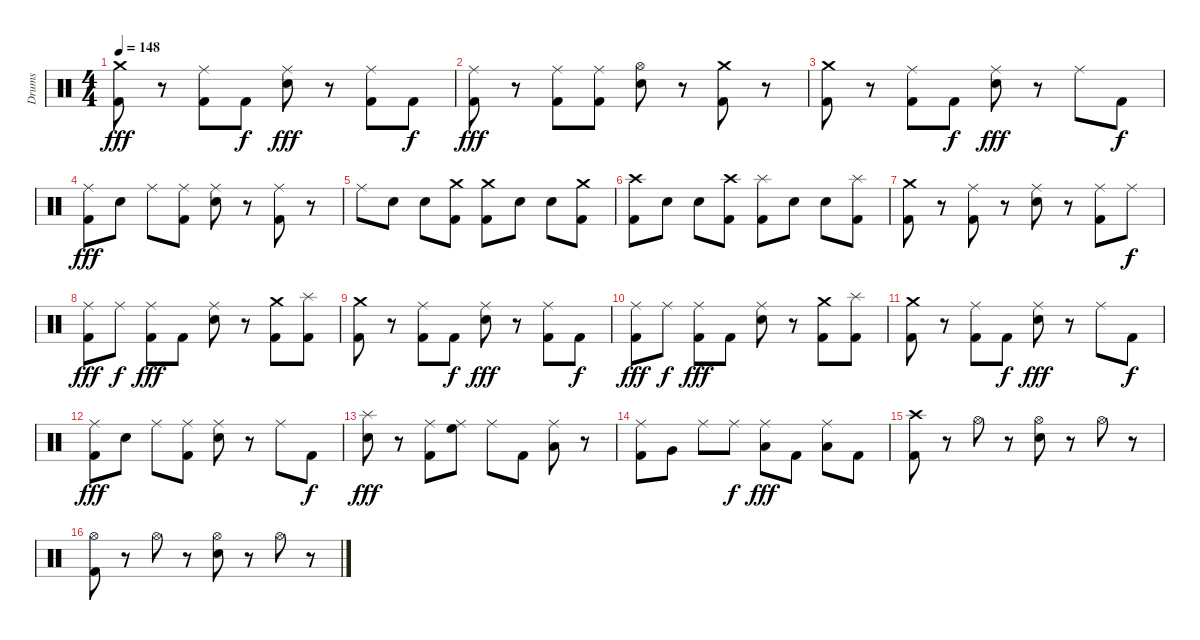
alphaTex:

\track ("Drums" "Drums") {instrument percussion}
\staff {score}
\articulation defaults
\ts (4 4)
\tempo 148
\clef neutral
\ks c
("Crash medium (hit)" "Kick (hit) 2").8{dy fff} r.8 ("Ride (middle)" "Kick (hit) 2").8 "Kick (hit) 2".8{dy f} ("Ride (middle)" "Electric Snare (hit)").8{dy fff} r.8 ("Ride (middle)" "Kick (hit) 2").8 "Kick (hit) 2".8{dy f} |
("Ride (middle)" "Kick (hit) 2").8{dy fff} r.8 ("Ride (middle)" "Kick (hit) 2").8 ("Ride (middle)" "Kick (hit) 2").8 ("Hi-Hat (open)" "Electric Snare (hit)").8 r.8 ("Crash medium (hit)" "Kick (hit) 2").8 r.8 |
("Crash medium (hit)" "Kick (hit) 2").8 r.8 ("Ride (middle)" "Kick (hit) 2").8 "Kick (hit) 2".8{dy f} ("Ride (middle)" "Electric Snare (hit)").8{dy fff} r.8 "Ride (middle)".8 "Kick (hit) 2".8{dy f} |
("Ride (middle)" "Kick (hit) 2").8{dy fff} "Electric Snare (hit)".8 "Ride (middle)".8 ("Ride (middle)" "Kick (hit) 2").8 ("Ride (middle)" "Electric Snare (hit)").8 r.8 ("Ride (middle)" "Kick (hit) 2").8 r.8 |
"Ride (middle)".8 "Electric Snare (hit)".8 "Electric Snare (hit)".8 ("Crash medium (hit)" "Kick (hit) 2").8 ("Crash medium (hit)" "Kick (hit) 2").8 "Electric Snare (hit)".8 "Electric Snare (hit)".8 ("Crash medium (hit)" "Kick (hit) 2").8 |
("Crash high (hit)" "Kick (hit) 2").8 "Electric Snare (hit)".8 "Electric Snare (hit)".8 ("Crash high (hit)" "Kick (hit) 2").8 ("Splash (hit)" "Kick (hit) 2").8 "Electric Snare (hit)".8 "Electric Snare (hit)".8 ("Splash (hit)" "Kick (hit) 2").8 |
("Crash medium (hit)" "Kick (hit) 2").8{volume 11} r.8 ("Ride (middle)" "Kick (hit) 2").8 r.8 ("Ride (middle)" "Electric Snare (hit)").8 r.8 ("Ride (middle)" "Kick (hit) 2").8 "Ride (middle)".8{dy f} |
("Ride (middle)" "Kick (hit) 2").8{dy fff} "Ride (middle)".8{dy f} ("Ride (middle)" "Kick (hit) 2").8{dy fff} "Kick (hit) 2".8 ("Ride (middle)" "Electric Snare (hit)").8 r.8 ("Crash medium (hit)" "Kick (hit) 2").8 ("Splash (hit)" "Kick (hit) 2").8 |
("Crash medium (hit)" "Kick (hit) 2").8 r.8 ("Ride (middle)" "Kick (hit) 2").8 "Kick (hit) 2".8{dy f} ("Ride (middle)" "Electric Snare (hit)").8{dy fff} r.8 ("Ride (middle)" "Kick (hit) 2").8 "Kick (hit) 2".8{dy f} |
("Ride (middle)" "Kick (hit) 2").8{dy fff} "Ride (middle)".8{dy f} ("Ride (middle)" "Kick (hit) 2").8{dy fff} "Kick (hit) 2".8 ("Ride (middle)" "Electric Snare (hit)").8 r.8 ("Crash medium (hit)" "Kick (hit) 2").8 ("Splash (hit)" "Kick (hit) 2").8 |
("Crash medium (hit)" "Kick (hit) 2").8{volume 9} r.8 ("Ride (middle)" "Kick (hit) 2").8 "Kick (hit) 2".8{dy f} ("Ride (middle)" "Electric Snare (hit)").8{dy fff} r.8 "Ride (middle)".8 "Kick (hit) 2".8{dy f} |
("Ride (middle)" "Kick (hit) 2").8{dy fff} "Electric Snare (hit)".8 "Ride (middle)".8 ("Ride (middle)" "Kick (hit) 2").8 ("Ride (middle)" "Electric Snare (hit)").8 r.8 "Ride (middle)".8 "Kick (hit) 2".8{dy f} |
("Splash (hit)" "Electric Snare (hit)").8{dy fff} r.8 ("Ride (middle)" "Kick (hit) 2").8 ("Ride (middle)" "High Floor Tom (hit)").8 "Ride (middle)".8 "Kick (hit) 2".8 ("Ride (middle)" "Low Tom (hit)").8 r.8 |
("Ride (middle)" "Kick (hit) 2").8 "Very Low Tom (hit)".8 "Ride (middle)".8 "Ride (middle)".8{dy f} ("Ride (middle)" "Low Floor Tom (hit)").8{dy fff} "Kick (hit) 2".8 ("Ride (middle)" "Low Floor Tom (hit)").8 "Kick (hit) 2".8 |
("Crash high (hit)" "Kick (hit) 2").8{volume 5} r.8 "Hi-Hat (open)".8 r.8 ("Hi-Hat (open)" "Electric Snare (hit)").8 r.8 "Hi-Hat (open)".8 r.8 |
("Hi-Hat (open)" "Kick (hit) 2").8 r.8 "Hi-Hat (open)".8 r.8 ("Hi-Hat (open)" "Electric Snare (hit)").8 r.8 "Hi-Hat (open)".8 r.8
